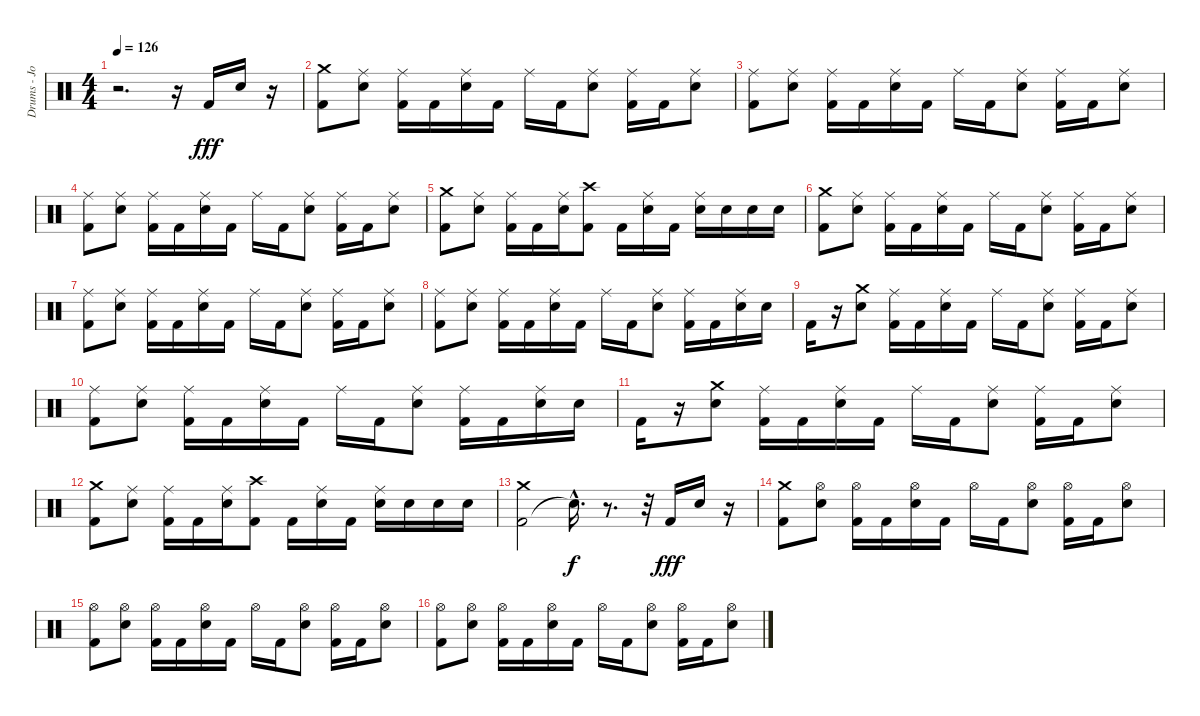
\track ("Drums - Jordan" "Drums - Jo") {instrument percussion}
\staff {score}
\articulation defaults
\ts (4 4)
\tempo 126
\clef neutral
\ks c
r.2{d dy fff} r.16 "Kick (hit) 2".16 "Electric Snare (hit)".16 r.16 |
("Kick (hit) 2" "Crash medium (hit)").8 ("Ride (middle)" "Electric Snare (hit)").8 ("Kick (hit) 2" "Ride (middle)").16 "Kick (hit) 2".16 ("Electric Snare (hit)" "Ride (middle)").16 "Kick (hit) 2".16 "Ride (middle)".16 "Kick (hit) 2".16 ("Electric Snare (hit)" "Ride (middle)").8 ("Kick (hit) 2" "Ride (middle)").16 "Kick (hit) 2".16 ("Electric Snare (hit)" "Ride (middle)").8 |
("Kick (hit) 2" "Ride (middle)").8 ("Electric Snare (hit)" "Ride (middle)").8 ("Kick (hit) 2" "Ride (middle)").16 "Kick (hit) 2".16 ("Electric Snare (hit)" "Ride (middle)").16 "Kick (hit) 2".16 "Ride (middle)".16 "Kick (hit) 2".16 ("Electric Snare (hit)" "Ride (middle)").8 ("Kick (hit) 2" "Ride (middle)").16 "Kick (hit) 2".16 ("Electric Snare (hit)" "Ride (middle)").8 |
("Kick (hit) 2" "Ride (middle)").8 ("Electric Snare (hit)" "Ride (middle)").8 ("Kick (hit) 2" "Ride (middle)").16 "Kick (hit) 2".16 ("Electric Snare (hit)" "Ride (middle)").16 "Kick (hit) 2".16 "Ride (middle)".16 "Kick (hit) 2".16 ("Electric Snare (hit)" "Ride (middle)").8 ("Kick (hit) 2" "Ride (middle)").16 "Kick (hit) 2".16 ("Electric Snare (hit)" "Ride (middle)").8 |
("Crash medium (hit)" "Kick (hit) 2").8 ("Electric Snare (hit)" "Ride (middle)").8 ("Kick (hit) 2" "Ride (middle)").16 "Kick (hit) 2".16 ("Electric Snare (hit)" "Ride (middle)").16 ("Crash high (hit)" "Kick (hit) 2").8 "Kick (hit) 2".16 ("Electric Snare (hit)" "Ride (middle)").16 "Kick (hit) 2".16 ("Electric Snare (hit)" "Ride (middle)").16 "Electric Snare (hit)".16 "Electric Snare (hit)".16 "Electric Snare (hit)".16 |
("Kick (hit) 2" "Crash medium (hit)").8 ("Ride (middle)" "Electric Snare (hit)").8 ("Kick (hit) 2" "Ride (middle)").16 "Kick (hit) 2".16 ("Electric Snare (hit)" "Ride (middle)").16 "Kick (hit) 2".16 "Ride (middle)".16 "Kick (hit) 2".16 ("Electric Snare (hit)" "Ride (middle)").8 ("Kick (hit) 2" "Ride (middle)").16 "Kick (hit) 2".16 ("Electric Snare (hit)" "Ride (middle)").8 |
("Kick (hit) 2" "Ride (middle)").8 ("Electric Snare (hit)" "Ride (middle)").8 ("Kick (hit) 2" "Ride (middle)").16 "Kick (hit) 2".16 ("Electric Snare (hit)" "Ride (middle)").16 "Kick (hit) 2".16 "Ride (middle)".16 "Kick (hit) 2".16 ("Electric Snare (hit)" "Ride (middle)").8 ("Kick (hit) 2" "Ride (middle)").16 "Kick (hit) 2".16 ("Electric Snare (hit)" "Ride (middle)").8 |
("Kick (hit) 2" "Ride (middle)").8 ("Electric Snare (hit)" "Ride (middle)").8 ("Kick (hit) 2" "Ride (middle)").16 "Kick (hit) 2".16 ("Electric Snare (hit)" "Ride (middle)").16 "Kick (hit) 2".16 "Ride (middle)".16 "Kick (hit) 2".16 ("Electric Snare (hit)" "Ride (middle)").8 ("Kick (hit) 2" "Ride (middle)").16 "Kick (hit) 2".16 ("Electric Snare (hit)" "Ride (middle)").16 "Electric Snare (hit)".16 |
"Kick (hit) 2".16 r.16 ("Electric Snare (hit)" "Crash medium (hit)").8 ("Kick (hit) 2" "Ride (middle)").16 "Kick (hit) 2".16 ("Electric Snare (hit)" "Ride (middle)").16 "Kick (hit) 2".16 "Ride (middle)".16 "Kick (hit) 2".16 ("Electric Snare (hit)" "Ride (middle)").8 ("Kick (hit) 2" "Ride (middle)").16 "Kick (hit) 2".16 ("Electric Snare (hit)" "Ride (middle)").8 |
("Kick (hit) 2" "Ride (middle)").8 ("Electric Snare (hit)" "Ride (middle)").8 ("Kick (hit) 2" "Ride (middle)").16 "Kick (hit) 2".16 ("Electric Snare (hit)" "Ride (middle)").16 "Kick (hit) 2".16 "Ride (middle)".16 "Kick (hit) 2".16 ("Electric Snare (hit)" "Ride (middle)").8 ("Kick (hit) 2" "Ride (middle)").16 "Kick (hit) 2".16 ("Electric Snare (hit)" "Ride (middle)").16 "Electric Snare (hit)".16 |
"Kick (hit) 2".16 r.16 ("Electric Snare (hit)" "Crash medium (hit)").8 ("Kick (hit) 2" "Ride (middle)").16 "Kick (hit) 2".16 ("Electric Snare (hit)" "Ride (middle)").16 "Kick (hit) 2".16 "Ride (middle)".16 "Kick (hit) 2".16 ("Electric Snare (hit)" "Ride (middle)").8 ("Kick (hit) 2" "Ride (middle)").16 "Kick (hit) 2".16 ("Electric Snare (hit)" "Ride (middle)").8 |
("Crash medium (hit)" "Kick (hit) 2").8 ("Electric Snare (hit)" "Ride (middle)").8 ("Kick (hit) 2" "Ride (middle)").16 "Kick (hit) 2".16 ("Electric Snare (hit)" "Ride (middle)").16 ("Crash high (hit)" "Kick (hit) 2").8 "Kick (hit) 2".16 ("Electric Snare (hit)" "Ride (middle)").16 "Kick (hit) 2".16 ("Electric Snare (hit)" "Ride (middle)").16 "Electric Snare (hit)".16 "Electric Snare (hit)".16 "Electric Snare (hit)".16 |
("Kick (hit) 2" "Crash medium (hit)").2 "Snare (hit)"{hac t}.16{d dy f} r.8{d} r.32 "Kick (hit) 2".16{dy fff} "Electric Snare (hit)".16 r.16 |
("Kick (hit) 2" "Crash medium (hit)").8 ("Electric Snare (hit)" "Hi-Hat (open)").8 ("Kick (hit) 2" "Hi-Hat (open)").16 "Kick (hit) 2".16 ("Electric Snare (hit)" "Hi-Hat (open)").16 "Kick (hit) 2".16 "Hi-Hat (open)".16 "Kick (hit) 2".16 ("Electric Snare (hit)" "Hi-Hat (open)").8 ("Kick (hit) 2" "Hi-Hat (open)").16 "Kick (hit) 2".16 ("Electric Snare (hit)" "Hi-Hat (open)").8 |
("Kick (hit) 2" "Hi-Hat (open)").8 ("Electric Snare (hit)" "Hi-Hat (open)").8 ("Kick (hit) 2" "Hi-Hat (open)").16 "Kick (hit) 2".16 ("Electric Snare (hit)" "Hi-Hat (open)").16 "Kick (hit) 2".16 "Hi-Hat (open)".16 "Kick (hit) 2".16 ("Electric Snare (hit)" "Hi-Hat (open)").8 ("Kick (hit) 2" "Hi-Hat (open)").16 "Kick (hit) 2".16 ("Electric Snare (hit)" "Hi-Hat (open)").8 |
("Kick (hit) 2" "Hi-Hat (open)").8 ("Electric Snare (hit)" "Hi-Hat (open)").8 ("Kick (hit) 2" "Hi-Hat (open)").16 "Kick (hit) 2".16 ("Electric Snare (hit)" "Hi-Hat (open)").16 "Kick (hit) 2".16 "Hi-Hat (open)".16 "Kick (hit) 2".16 ("Electric Snare (hit)" "Hi-Hat (open)").8 ("Kick (hit) 2" "Hi-Hat (open)").16 "Kick (hit) 2".16 ("Electric Snare (hit)" "Hi-Hat (open)").8
